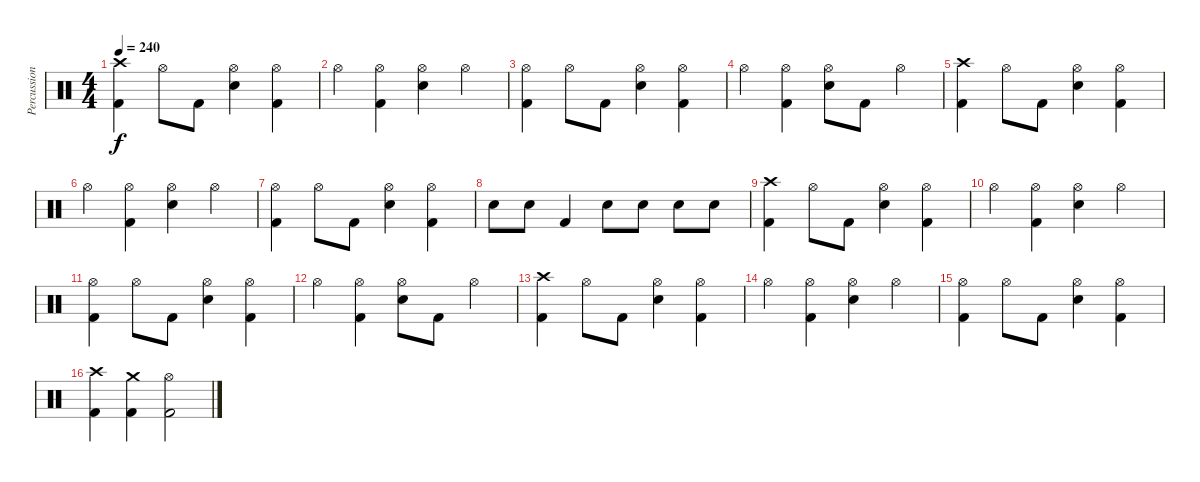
\track ("Percussion" "Percussion") {instrument percussion}
\staff {score}
\articulation defaults
\ts (4 4)
\tempo 240
\clef neutral
\ks c
("Crash high (hit)" "Kick (hit) 2").4{dy f} "Hi-Hat (open)".8 "Kick (hit) 2".8 ("Hi-Hat (open)" "Snare (hit) 2").4 ("Hi-Hat (open)" "Kick (hit) 2").4 |
"Hi-Hat (open)".4 ("Hi-Hat (open)" "Kick (hit) 2").4 ("Hi-Hat (open)" "Snare (hit) 2").4 "Hi-Hat (open)".4 |
("Hi-Hat (open)" "Kick (hit) 2").4 "Hi-Hat (open)".8 "Kick (hit) 2".8 ("Hi-Hat (open)" "Snare (hit) 2").4 ("Hi-Hat (open)" "Kick (hit) 2").4 |
"Hi-Hat (open)".4 ("Hi-Hat (open)" "Kick (hit) 2").4 ("Hi-Hat (open)" "Snare (hit) 2").8 "Kick (hit) 2".8 "Hi-Hat (open)".4 |
("Crash high (hit)" "Kick (hit) 2").4 "Hi-Hat (open)".8 "Kick (hit) 2".8 ("Hi-Hat (open)" "Snare (hit) 2").4 ("Hi-Hat (open)" "Kick (hit) 2").4 |
"Hi-Hat (open)".4 ("Hi-Hat (open)" "Kick (hit) 2").4 ("Hi-Hat (open)" "Snare (hit) 2").4 "Hi-Hat (open)".4 |
("Hi-Hat (open)" "Kick (hit) 2").4 "Hi-Hat (open)".8 "Kick (hit) 2".8 ("Hi-Hat (open)" "Snare (hit) 2").4 ("Hi-Hat (open)" "Kick (hit) 2").4 |
"Snare (hit) 2".8 "Snare (hit) 2".8 "Kick (hit) 2".4 "Snare (hit) 2".8 "Snare (hit) 2".8 "Snare (hit) 2".8 "Snare (hit) 2".8 |
("Crash high (hit)" "Kick (hit) 2").4 "Hi-Hat (open)".8 "Kick (hit) 2".8 ("Hi-Hat (open)" "Snare (hit) 2").4 ("Hi-Hat (open)" "Kick (hit) 2").4 |
"Hi-Hat (open)".4 ("Hi-Hat (open)" "Kick (hit) 2").4 ("Hi-Hat (open)" "Snare (hit) 2").4 "Hi-Hat (open)".4 |
("Hi-Hat (open)" "Kick (hit) 2").4 "Hi-Hat (open)".8 "Kick (hit) 2".8 ("Hi-Hat (open)" "Snare (hit) 2").4 ("Hi-Hat (open)" "Kick (hit) 2").4 |
"Hi-Hat (open)".4 ("Hi-Hat (open)" "Kick (hit) 2").4 ("Hi-Hat (open)" "Snare (hit) 2").8 "Kick (hit) 2".8 "Hi-Hat (open)".4 |
("Crash high (hit)" "Kick (hit) 2").4 "Hi-Hat (open)".8 "Kick (hit) 2".8 ("Hi-Hat (open)" "Snare (hit) 2").4 ("Hi-Hat (open)" "Kick (hit) 2").4 |
"Hi-Hat (open)".4 ("Hi-Hat (open)" "Kick (hit) 2").4 ("Hi-Hat (open)" "Snare (hit) 2").4 "Hi-Hat (open)".4 |
("Hi-Hat (open)" "Kick (hit) 2").4 "Hi-Hat (open)".8 "Kick (hit) 2".8 ("Hi-Hat (open)" "Snare (hit) 2").4 ("Hi-Hat (open)" "Kick (hit) 2").4 |
("Crash high (hit)" "Kick (hit) 2").4 ("Crash medium (hit)" "Kick (hit) 2").4 ("Hi-Hat (open)" "Kick (hit) 2").2
